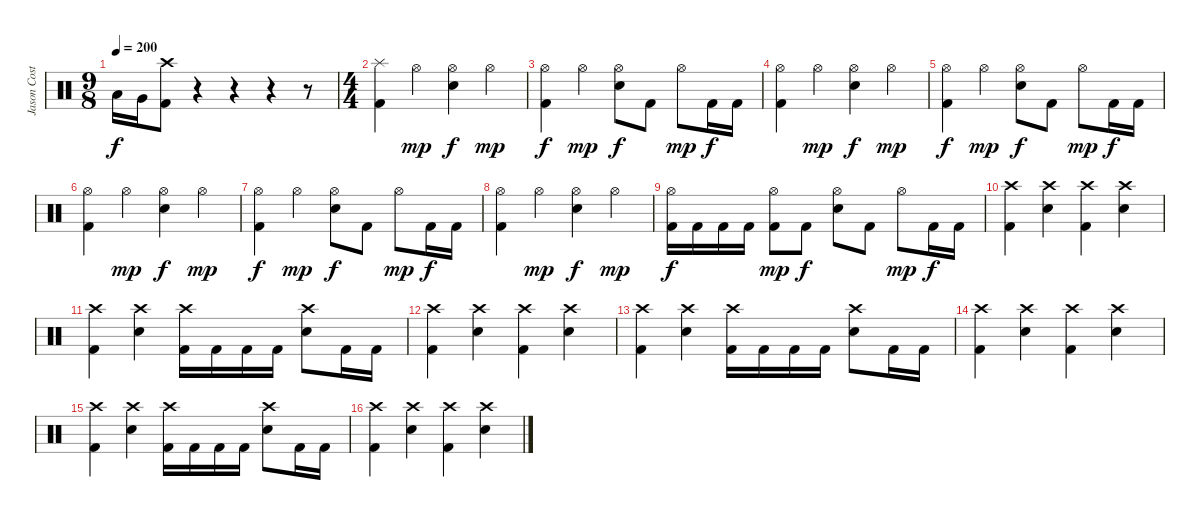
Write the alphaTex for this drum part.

\track ("Jason Costa" "Jason Cost") {instrument percussion}
\staff {score}
\articulation defaults
\ts (9 8)
\tempo 200
\clef neutral
\ks c "Low Tom (hit)".16{dy f} "Very Low Tom (hit)".16
("Crash high (hit)" "Kick (hit) 2").8 r.4 r.4 r.4 r.8 |
\ts (4 4)
("Splash (hit)" "Kick (hit) 2").4 "Hi-Hat (open)".4{dy mp} ("Hi-Hat (open)" "Electric Snare (hit)").4{dy f} "Hi-Hat (open)".4{dy mp} |
("Hi-Hat (open)" "Kick (hit) 2").4{dy f} "Hi-Hat (open)".4{dy mp} ("Hi-Hat (open)" "Electric Snare (hit)").8{dy f} "Kick (hit) 2".8 "Hi-Hat (open)".8{dy mp} "Kick (hit) 2".16{dy f} "Kick (hit) 2".16 |
("Hi-Hat (open)" "Kick (hit) 2").4 "Hi-Hat (open)".4{dy mp} ("Hi-Hat (open)" "Electric Snare (hit)").4{dy f} "Hi-Hat (open)".4{dy mp} |
("Hi-Hat (open)" "Kick (hit) 2").4{dy f} "Hi-Hat (open)".4{dy mp} ("Hi-Hat (open)" "Electric Snare (hit)").8{dy f} "Kick (hit) 2".8 "Hi-Hat (open)".8{dy mp} "Kick (hit) 2".16{dy f} "Kick (hit) 2".16 |
("Hi-Hat (open)" "Kick (hit) 2").4 "Hi-Hat (open)".4{dy mp} ("Hi-Hat (open)" "Electric Snare (hit)").4{dy f} "Hi-Hat (open)".4{dy mp} |
("Hi-Hat (open)" "Kick (hit) 2").4{dy f} "Hi-Hat (open)".4{dy mp} ("Hi-Hat (open)" "Electric Snare (hit)").8{dy f} "Kick (hit) 2".8 "Hi-Hat (open)".8{dy mp} "Kick (hit) 2".16{dy f} "Kick (hit) 2".16 |
("Hi-Hat (open)" "Kick (hit) 2").4 "Hi-Hat (open)".4{dy mp} ("Hi-Hat (open)" "Electric Snare (hit)").4{dy f} "Hi-Hat (open)".4{dy mp} |
("Hi-Hat (open)" "Kick (hit) 2").16{dy f} "Kick (hit) 2".16 "Kick (hit) 2".16 "Kick (hit) 2".16 ("Hi-Hat (open)" "Kick (hit) 2").8{dy mp} "Kick (hit) 2".8{dy f} ("Hi-Hat (open)" "Electric Snare (hit)").8 "Kick (hit) 2".8 "Hi-Hat (open)".8{dy mp} "Kick (hit) 2".16{dy f} "Kick (hit) 2".16 |
("Crash high (hit)" "Kick (hit) 2").4 ("Crash high (hit)" "Electric Snare (hit)").4 ("Crash high (hit)" "Kick (hit) 2").4 ("Crash high (hit)" "Electric Snare (hit)").4 |
("Crash high (hit)" "Kick (hit) 2").4 ("Crash high (hit)" "Electric Snare (hit)").4 ("Crash high (hit)" "Kick (hit) 2").16 "Kick (hit) 2".16 "Kick (hit) 2".16 "Kick (hit) 2".16 ("Crash high (hit)" "Electric Snare (hit)").8 "Kick (hit) 2".16 "Kick (hit) 2".16 |
("Crash high (hit)" "Kick (hit) 2").4 ("Crash high (hit)" "Electric Snare (hit)").4 ("Crash high (hit)" "Kick (hit) 2").4 ("Crash high (hit)" "Electric Snare (hit)").4 |
("Crash high (hit)" "Kick (hit) 2").4 ("Crash high (hit)" "Electric Snare (hit)").4 ("Crash high (hit)" "Kick (hit) 2").16 "Kick (hit) 2".16 "Kick (hit) 2".16 "Kick (hit) 2".16 ("Crash high (hit)" "Electric Snare (hit)").8 "Kick (hit) 2".16 "Kick (hit) 2".16 |
("Crash high (hit)" "Kick (hit) 2").4 ("Crash high (hit)" "Electric Snare (hit)").4 ("Crash high (hit)" "Kick (hit) 2").4 ("Crash high (hit)" "Electric Snare (hit)").4 |
("Crash high (hit)" "Kick (hit) 2").4 ("Crash high (hit)" "Electric Snare (hit)").4 ("Crash high (hit)" "Kick (hit) 2").16 "Kick (hit) 2".16 "Kick (hit) 2".16 "Kick (hit) 2".16 ("Crash high (hit)" "Electric Snare (hit)").8 "Kick (hit) 2".16 "Kick (hit) 2".16 |
("Crash high (hit)" "Kick (hit) 2").4 ("Crash high (hit)" "Electric Snare (hit)").4 ("Crash high (hit)" "Kick (hit) 2").4 ("Crash high (hit)" "Electric Snare (hit)").4
